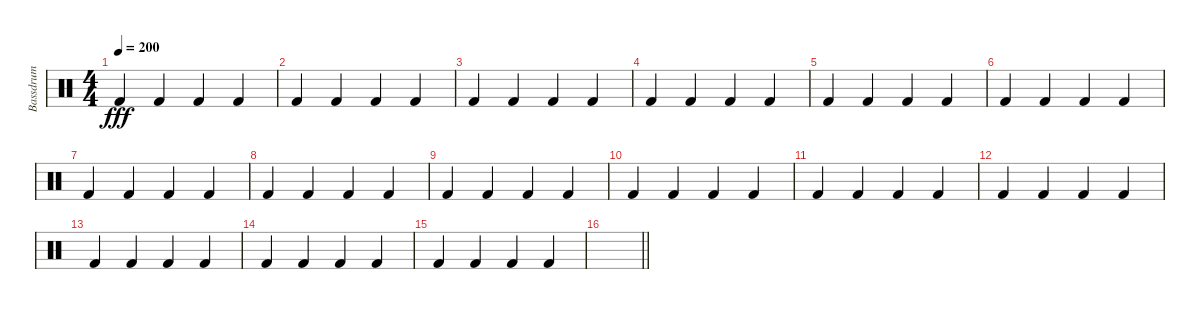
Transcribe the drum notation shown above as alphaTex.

\track ("Bassdrum" "Bassdrum") {instrument percussion}
\staff {score}
\articulation defaults
\ts (4 4)
\tempo 200
\clef neutral
\ks c "Kick (hit) 2".4{dy fff} "Kick (hit) 2".4 "Kick (hit) 2".4 "Kick (hit) 2".4
|
"Kick (hit) 2".4 "Kick (hit) 2".4 "Kick (hit) 2".4 "Kick (hit) 2".4 |
"Kick (hit) 2".4 "Kick (hit) 2".4 "Kick (hit) 2".4 "Kick (hit) 2".4 |
"Kick (hit) 2".4 "Kick (hit) 2".4 "Kick (hit) 2".4 "Kick (hit) 2".4 |
"Kick (hit) 2".4 "Kick (hit) 2".4 "Kick (hit) 2".4 "Kick (hit) 2".4 |
"Kick (hit) 2".4 "Kick (hit) 2".4 "Kick (hit) 2".4 "Kick (hit) 2".4 |
"Kick (hit) 2".4 "Kick (hit) 2".4 "Kick (hit) 2".4 "Kick (hit) 2".4 |
"Kick (hit) 2".4 "Kick (hit) 2".4 "Kick (hit) 2".4 "Kick (hit) 2".4 |
"Kick (hit) 2".4 "Kick (hit) 2".4 "Kick (hit) 2".4 "Kick (hit) 2".4 |
"Kick (hit) 2".4 "Kick (hit) 2".4 "Kick (hit) 2".4 "Kick (hit) 2".4 |
"Kick (hit) 2".4 "Kick (hit) 2".4 "Kick (hit) 2".4 "Kick (hit) 2".4 |
"Kick (hit) 2".4 "Kick (hit) 2".4 "Kick (hit) 2".4 "Kick (hit) 2".4 |
"Kick (hit) 2".4 "Kick (hit) 2".4 "Kick (hit) 2".4 "Kick (hit) 2".4 |
"Kick (hit) 2".4 "Kick (hit) 2".4 "Kick (hit) 2".4 "Kick (hit) 2".4 |
"Kick (hit) 2".4 "Kick (hit) 2".4 "Kick (hit) 2".4 "Kick (hit) 2".4 |
\barLineRight lightlight
